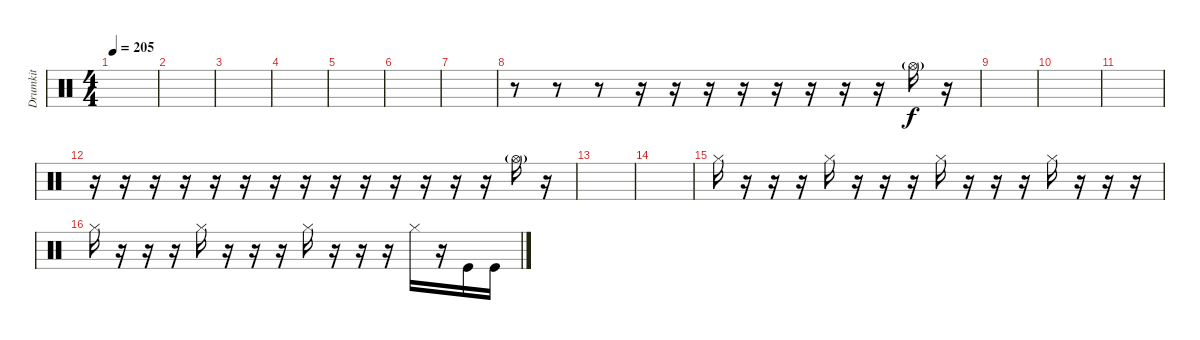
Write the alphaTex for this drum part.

\track ("Drumkit" "Drumkit") {instrument percussion}
\staff {score}
\articulation defaults
\ts (4 4)
\tempo 205
\clef neutral
\ks c
|
|
|
|
|
|
|
r.8 r.8 r.8 r.16 r.16 r.16 r.16 r.16 r.16 r.16 r.16 "Hi-Hat (open)"{g}.16 r.16 |
|
|
|
r.16 r.16 r.16 r.16 r.16 r.16 r.16 r.16 r.16 r.16 r.16 r.16 r.16 r.16 "Hi-Hat (open)"{g}.16 r.16 |
|
|
"Hi-Hat (closed)".16 r.16 r.16 r.16 "Hi-Hat (closed)".16 r.16 r.16 r.16 "Hi-Hat (closed)".16 r.16 r.16 r.16 "Hi-Hat (closed)".16 r.16 r.16 r.16 |
"Hi-Hat (closed)".16 r.16 r.16 r.16 "Hi-Hat (closed)".16 r.16 r.16 r.16 "Hi-Hat (closed)".16 r.16 r.16 r.16 "Hi-Hat (closed)".16 r.16 "Kick (hit)".16 "Kick (hit)".16
